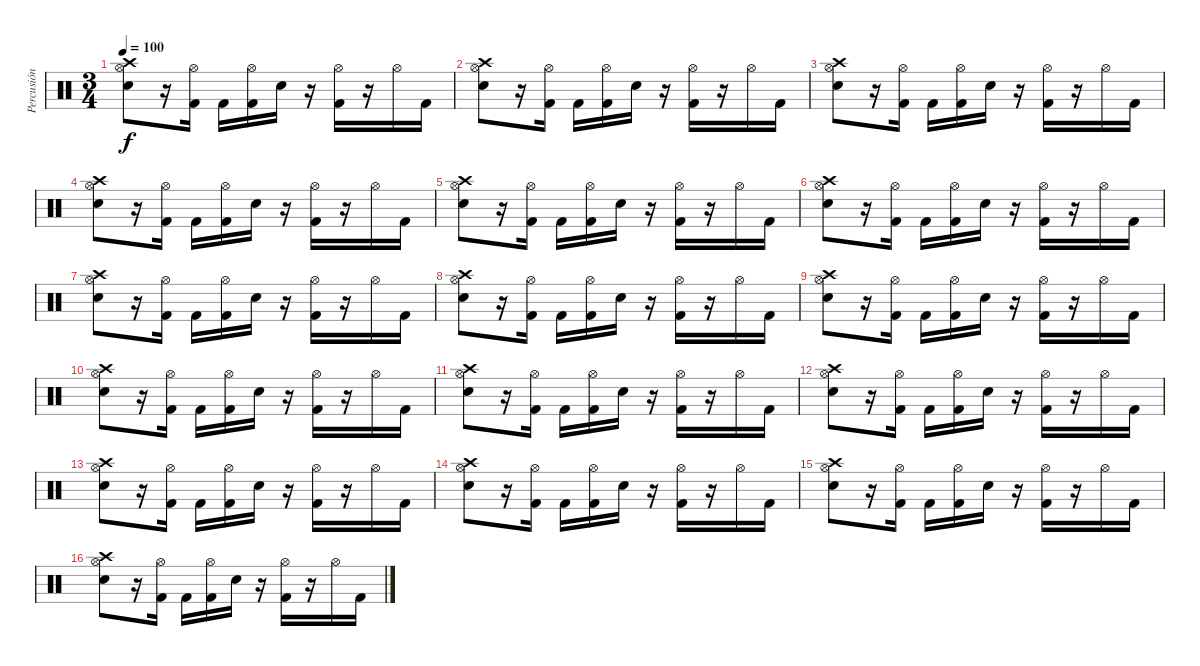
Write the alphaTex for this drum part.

\track ("Percusión" "Percusión") {instrument percussion}
\staff {score}
\articulation defaults
\ts (3 4)
\tempo 100
\clef neutral
\ks c
("Crash high (hit)" "Hi-Hat (open)" "Electric Snare (hit)").8{dy f} r.16 ("Hi-Hat (open)" "Kick (hit) 2").16 "Kick (hit) 2".16 ("Hi-Hat (open)" "Kick (hit) 2").16 "Electric Snare (hit)".16 r.16 ("Hi-Hat (open)" "Kick (hit) 2").16 r.16 "Hi-Hat (open)".16 "Kick (hit) 2".16 |
("Crash high (hit)" "Hi-Hat (open)" "Electric Snare (hit)").8 r.16 ("Hi-Hat (open)" "Kick (hit) 2").16 "Kick (hit) 2".16 ("Hi-Hat (open)" "Kick (hit) 2").16 "Electric Snare (hit)".16 r.16 ("Hi-Hat (open)" "Kick (hit) 2").16 r.16 "Hi-Hat (open)".16 "Kick (hit) 2".16 |
("Crash high (hit)" "Hi-Hat (open)" "Electric Snare (hit)").8 r.16 ("Hi-Hat (open)" "Kick (hit) 2").16 "Kick (hit) 2".16 ("Hi-Hat (open)" "Kick (hit) 2").16 "Electric Snare (hit)".16 r.16 ("Hi-Hat (open)" "Kick (hit) 2").16 r.16 "Hi-Hat (open)".16 "Kick (hit) 2".16 |
("Crash high (hit)" "Hi-Hat (open)" "Electric Snare (hit)").8 r.16 ("Hi-Hat (open)" "Kick (hit) 2").16 "Kick (hit) 2".16 ("Hi-Hat (open)" "Kick (hit) 2").16 "Electric Snare (hit)".16 r.16 ("Hi-Hat (open)" "Kick (hit) 2").16 r.16 "Hi-Hat (open)".16 "Kick (hit) 2".16 |
("Crash high (hit)" "Hi-Hat (open)" "Electric Snare (hit)").8 r.16 ("Hi-Hat (open)" "Kick (hit) 2").16 "Kick (hit) 2".16 ("Hi-Hat (open)" "Kick (hit) 2").16 "Electric Snare (hit)".16 r.16 ("Hi-Hat (open)" "Kick (hit) 2").16 r.16 "Hi-Hat (open)".16 "Kick (hit) 2".16 |
("Crash high (hit)" "Hi-Hat (open)" "Electric Snare (hit)").8 r.16 ("Hi-Hat (open)" "Kick (hit) 2").16 "Kick (hit) 2".16 ("Hi-Hat (open)" "Kick (hit) 2").16 "Electric Snare (hit)".16 r.16 ("Hi-Hat (open)" "Kick (hit) 2").16 r.16 "Hi-Hat (open)".16 "Kick (hit) 2".16 |
("Crash high (hit)" "Hi-Hat (open)" "Electric Snare (hit)").8 r.16 ("Hi-Hat (open)" "Kick (hit) 2").16 "Kick (hit) 2".16 ("Hi-Hat (open)" "Kick (hit) 2").16 "Electric Snare (hit)".16 r.16 ("Hi-Hat (open)" "Kick (hit) 2").16 r.16 "Hi-Hat (open)".16 "Kick (hit) 2".16 |
("Crash high (hit)" "Hi-Hat (open)" "Electric Snare (hit)").8 r.16 ("Hi-Hat (open)" "Kick (hit) 2").16 "Kick (hit) 2".16 ("Hi-Hat (open)" "Kick (hit) 2").16 "Electric Snare (hit)".16 r.16 ("Hi-Hat (open)" "Kick (hit) 2").16 r.16 "Hi-Hat (open)".16 "Kick (hit) 2".16 |
("Crash high (hit)" "Hi-Hat (open)" "Electric Snare (hit)").8 r.16 ("Hi-Hat (open)" "Kick (hit) 2").16 "Kick (hit) 2".16 ("Hi-Hat (open)" "Kick (hit) 2").16 "Electric Snare (hit)".16 r.16 ("Hi-Hat (open)" "Kick (hit) 2").16 r.16 "Hi-Hat (open)".16 "Kick (hit) 2".16 |
("Crash high (hit)" "Hi-Hat (open)" "Electric Snare (hit)").8 r.16 ("Hi-Hat (open)" "Kick (hit) 2").16 "Kick (hit) 2".16 ("Hi-Hat (open)" "Kick (hit) 2").16 "Electric Snare (hit)".16 r.16 ("Hi-Hat (open)" "Kick (hit) 2").16 r.16 "Hi-Hat (open)".16 "Kick (hit) 2".16 |
("Crash high (hit)" "Hi-Hat (open)" "Electric Snare (hit)").8 r.16 ("Hi-Hat (open)" "Kick (hit) 2").16 "Kick (hit) 2".16 ("Hi-Hat (open)" "Kick (hit) 2").16 "Electric Snare (hit)".16 r.16 ("Hi-Hat (open)" "Kick (hit) 2").16 r.16 "Hi-Hat (open)".16 "Kick (hit) 2".16 |
("Crash high (hit)" "Hi-Hat (open)" "Electric Snare (hit)").8 r.16 ("Hi-Hat (open)" "Kick (hit) 2").16 "Kick (hit) 2".16 ("Hi-Hat (open)" "Kick (hit) 2").16 "Electric Snare (hit)".16 r.16 ("Hi-Hat (open)" "Kick (hit) 2").16 r.16 "Hi-Hat (open)".16 "Kick (hit) 2".16 |
("Crash high (hit)" "Hi-Hat (open)" "Electric Snare (hit)").8 r.16 ("Hi-Hat (open)" "Kick (hit) 2").16 "Kick (hit) 2".16 ("Hi-Hat (open)" "Kick (hit) 2").16 "Electric Snare (hit)".16 r.16 ("Hi-Hat (open)" "Kick (hit) 2").16 r.16 "Hi-Hat (open)".16 "Kick (hit) 2".16 |
("Crash high (hit)" "Hi-Hat (open)" "Electric Snare (hit)").8 r.16 ("Hi-Hat (open)" "Kick (hit) 2").16 "Kick (hit) 2".16 ("Hi-Hat (open)" "Kick (hit) 2").16 "Electric Snare (hit)".16 r.16 ("Hi-Hat (open)" "Kick (hit) 2").16 r.16 "Hi-Hat (open)".16 "Kick (hit) 2".16 |
("Crash high (hit)" "Hi-Hat (open)" "Electric Snare (hit)").8 r.16 ("Hi-Hat (open)" "Kick (hit) 2").16 "Kick (hit) 2".16 ("Hi-Hat (open)" "Kick (hit) 2").16 "Electric Snare (hit)".16 r.16 ("Hi-Hat (open)" "Kick (hit) 2").16 r.16 "Hi-Hat (open)".16 "Kick (hit) 2".16 |
("Crash high (hit)" "Hi-Hat (open)" "Electric Snare (hit)").8 r.16 ("Hi-Hat (open)" "Kick (hit) 2").16 "Kick (hit) 2".16 ("Hi-Hat (open)" "Kick (hit) 2").16 "Electric Snare (hit)".16 r.16 ("Hi-Hat (open)" "Kick (hit) 2").16 r.16 "Hi-Hat (open)".16 "Kick (hit) 2".16
